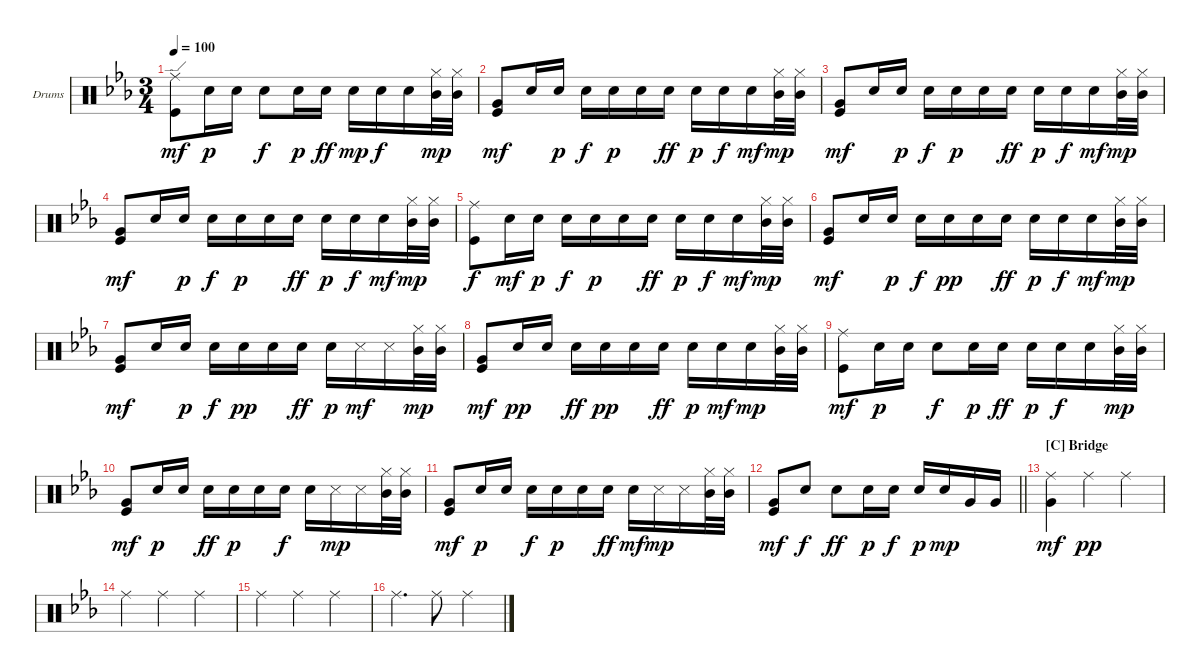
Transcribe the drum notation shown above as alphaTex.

\defaultSystemsLayout 4
\bracketExtendMode groupsimilarinstruments
\firstSystemTrackNameOrientation horizontal
\otherSystemsTrackNameOrientation horizontal
\track ("Drumkit" "Drums") {instrument percussion}
\staff {score}
\articulation defaults
\ts (3 4)
\tempo 100
\clef neutral
\ks cminor
("Kick (hit)" "Ride (edge)").8{dy mf} "Snare (hit) 2".16{dy p} "Snare (hit) 2".16 "Snare (hit) 2".8{dy f} "Snare (hit) 2".16{dy p} "Snare (hit) 2".16{dy ff} "Snare (hit) 2".16{dy mp} "Snare (hit) 2".16{dy f} "Snare (hit) 2".16 ("Mid Tom (hit)" "Hi-Hat (closed)").32{dy mp} ("Mid Tom (hit)" "Hi-Hat (closed)").32 |
("Kick (hit)" "Very Low Tom (hit)").8{dy mf} "Snare (hit) 2".16 "Snare (hit) 2".16{dy p} "Snare (hit) 2".16{dy f} "Snare (hit) 2".16{dy p} "Snare (hit) 2".16 "Snare (hit) 2".16{dy ff} "Snare (hit) 2".16{dy p} "Snare (hit) 2".16{dy f} "Snare (hit) 2".16{dy mf} ("Mid Tom (hit)" "Hi-Hat (closed)").32{dy mp} ("Mid Tom (hit)" "Hi-Hat (closed)").32 |
("Kick (hit)" "Very Low Tom (hit)").8{dy mf} "Snare (hit) 2".16 "Snare (hit) 2".16{dy p} "Snare (hit) 2".16{dy f} "Snare (hit) 2".16{dy p} "Snare (hit) 2".16 "Snare (hit) 2".16{dy ff} "Snare (hit) 2".16{dy p} "Snare (hit) 2".16{dy f} "Snare (hit) 2".16{dy mf} ("Mid Tom (hit)" "Hi-Hat (closed)").32{dy mp} ("Mid Tom (hit)" "Hi-Hat (closed)").32 |
("Kick (hit)" "Very Low Tom (hit)").8{dy mf} "Snare (hit) 2".16 "Snare (hit) 2".16{dy p} "Snare (hit) 2".16{dy f} "Snare (hit) 2".16{dy p} "Snare (hit) 2".16 "Snare (hit) 2".16{dy ff} "Snare (hit) 2".16{dy p} "Snare (hit) 2".16{dy f} "Snare (hit) 2".16{dy mf} ("Mid Tom (hit)" "Hi-Hat (closed)").32{dy mp} ("Mid Tom (hit)" "Hi-Hat (closed)").32 |
("Kick (hit)" "Ride (middle)").8{dy f} "Snare (hit) 2".16{dy mf} "Snare (hit) 2".16{dy p} "Snare (hit) 2".16{dy f} "Snare (hit) 2".16{dy p} "Snare (hit) 2".16 "Snare (hit) 2".16{dy ff} "Snare (hit) 2".16{dy p} "Snare (hit) 2".16{dy f} "Snare (hit) 2".16{dy mf} ("Mid Tom (hit)" "Hi-Hat (closed)").32{dy mp} ("Mid Tom (hit)" "Hi-Hat (closed)").32 |
("Kick (hit)" "Very Low Tom (hit)").8{dy mf} "Snare (hit) 2".16 "Snare (hit) 2".16{dy p} "Snare (hit) 2".16{dy f} "Snare (hit) 2".16{dy pp} "Snare (hit) 2".16 "Snare (hit) 2".16{dy ff} "Snare (hit) 2".16{dy p} "Snare (hit) 2".16{dy f} "Snare (hit) 2".16{dy mf} ("Mid Tom (hit)" "Hi-Hat (closed)").32{dy mp} ("Mid Tom (hit)" "Hi-Hat (closed)").32 |
("Kick (hit)" "Very Low Tom (hit)").8{dy mf} "Snare (hit) 2".16 "Snare (hit) 2".16{dy p} "Snare (hit) 2".16{dy f} "Snare (hit) 2".16{dy pp} "Snare (hit) 2".16 "Snare (hit) 2".16{dy ff} "Snare (hit) 2".16{dy p} "Snare (side stick) 3".16{dy mf} "Snare (side stick) 3".16 ("Mid Tom (hit)" "Hi-Hat (closed)").32{dy mp} ("Mid Tom (hit)" "Hi-Hat (closed)").32 |
("Kick (hit)" "Very Low Tom (hit)").8{dy mf} "Snare (hit) 2".16{dy pp} "Snare (hit) 2".16 "Snare (hit) 2".16{dy ff} "Snare (hit) 2".16{dy pp} "Snare (hit) 2".16 "Snare (hit) 2".16{dy ff} "Snare (hit) 2".16{dy p} "Snare (hit) 2".16{dy mf} "Snare (hit) 2".16{dy mp} ("Mid Tom (hit)" "Hi-Hat (closed)").32 ("Mid Tom (hit)" "Hi-Hat (closed)").32 |
("Kick (hit)" "Ride (middle)").8{dy mf} "Snare (hit) 2".16{dy p} "Snare (hit) 2".16 "Snare (hit) 2".8{dy f} "Snare (hit) 2".16{dy p} "Snare (hit) 2".16{dy ff} "Snare (hit) 2".16{dy p} "Snare (hit) 2".16{dy f} "Snare (hit) 2".16 ("Hi-Hat (closed)" "Mid Tom (hit)").32{dy mp} ("Hi-Hat (closed)" "Mid Tom (hit)").32 |
("Kick (hit)" "Very Low Tom (hit)").8{dy mf} "Snare (hit) 2".16{dy p} "Snare (hit) 2".16 "Snare (hit) 2".16{dy ff} "Snare (hit) 2".16{dy p} "Snare (hit) 2".16 "Snare (hit) 2".16{dy f} "Snare (hit) 2".16 "Snare (side stick) 3".16{dy mp} "Snare (side stick) 3".16 ("Hi-Hat (closed)" "Mid Tom (hit)").32 ("Hi-Hat (closed)" "Mid Tom (hit)").32 |
("Kick (hit)" "Very Low Tom (hit)").8{dy mf} "Snare (hit) 2".16{dy p} "Snare (hit) 2".16 "Snare (hit) 2".16{dy f} "Snare (hit) 2".16{dy p} "Snare (hit) 2".16 "Snare (hit) 2".16{dy ff} "Snare (hit) 2".16{dy mf} "Snare (side stick) 3".16{dy mp} "Snare (side stick) 3".16 ("Hi-Hat (closed)" "Mid Tom (hit)").32 ("Hi-Hat (closed)" "Mid Tom (hit)").32 |
\barLineRight lightlight
("Kick (hit)" "Very Low Tom (hit)").8{dy mf} "Snare (hit) 2".8{dy f} "Snare (hit) 2".8{dy ff} "Snare (hit) 2".16{dy p} "Snare (hit) 2".16{dy f} "Snare (hit) 2".16{dy p} "Snare (hit) 2".16{dy mp} "Very Low Tom (hit)".16 "Very Low Tom (hit)".16 |
\section ("C" "Bridge")
("Very Low Tom (hit)" "Ride (middle)").4{dy mf} "Ride (middle)".4{dy pp} "Ride (middle)".4 |
"Ride (middle)".4 "Ride (middle)".4 "Ride (middle)".4 |
"Ride (middle)".4 "Ride (middle)".4 "Ride (middle)".4 |
"Ride (middle)".4{d} "Ride (middle)".8 "Ride (middle)".4
